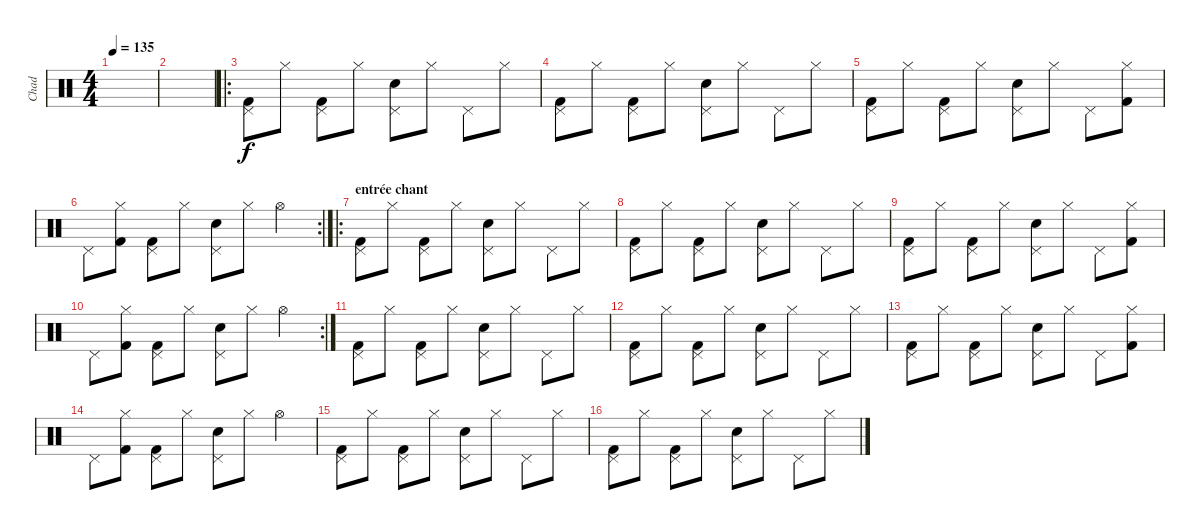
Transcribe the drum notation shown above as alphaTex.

\track ("Chad" "Chad") {instrument percussion}
\staff {score}
\articulation defaults
\ts (4 4)
\tempo 135
\clef neutral
\ks c
|
|
\ro
("Pedal Hi-Hat (hit)" "Kick (hit) 2").8 "Hi-Hat (closed)".8 ("Pedal Hi-Hat (hit)" "Kick (hit) 2").8 "Hi-Hat (closed)".8 ("Pedal Hi-Hat (hit)" "Electric Snare (hit)").8 "Hi-Hat (closed)".8 "Pedal Hi-Hat (hit)".8 "Hi-Hat (closed)".8 |
("Pedal Hi-Hat (hit)" "Kick (hit) 2").8 "Hi-Hat (closed)".8 ("Pedal Hi-Hat (hit)" "Kick (hit) 2").8 "Hi-Hat (closed)".8 ("Pedal Hi-Hat (hit)" "Electric Snare (hit)").8 "Hi-Hat (closed)".8 "Pedal Hi-Hat (hit)".8 "Hi-Hat (closed)".8 |
("Pedal Hi-Hat (hit)" "Kick (hit) 2").8 "Hi-Hat (closed)".8 ("Pedal Hi-Hat (hit)" "Kick (hit) 2").8 "Hi-Hat (closed)".8 ("Pedal Hi-Hat (hit)" "Electric Snare (hit)").8 "Hi-Hat (closed)".8 "Pedal Hi-Hat (hit)".8 ("Hi-Hat (closed)" "Kick (hit) 2").8 |
\rc 2 "Pedal Hi-Hat (hit)".8
("Hi-Hat (closed)" "Kick (hit) 2").8 ("Pedal Hi-Hat (hit)" "Kick (hit) 2").8 "Hi-Hat (closed)".8 ("Pedal Hi-Hat (hit)" "Electric Snare (hit)").8 "Hi-Hat (closed)".8 "Hi-Hat (open)".4 |
\ro
\section ("" "entrée chant")
("Pedal Hi-Hat (hit)" "Kick (hit) 2").8 "Hi-Hat (closed)".8 ("Pedal Hi-Hat (hit)" "Kick (hit) 2").8 "Hi-Hat (closed)".8 ("Pedal Hi-Hat (hit)" "Electric Snare (hit)").8 "Hi-Hat (closed)".8 "Pedal Hi-Hat (hit)".8 "Hi-Hat (closed)".8 |
("Pedal Hi-Hat (hit)" "Kick (hit) 2").8 "Hi-Hat (closed)".8 ("Pedal Hi-Hat (hit)" "Kick (hit) 2").8 "Hi-Hat (closed)".8 ("Pedal Hi-Hat (hit)" "Electric Snare (hit)").8 "Hi-Hat (closed)".8 "Pedal Hi-Hat (hit)".8 "Hi-Hat (closed)".8 |
("Pedal Hi-Hat (hit)" "Kick (hit) 2").8 "Hi-Hat (closed)".8 ("Pedal Hi-Hat (hit)" "Kick (hit) 2").8 "Hi-Hat (closed)".8 ("Pedal Hi-Hat (hit)" "Electric Snare (hit)").8 "Hi-Hat (closed)".8 "Pedal Hi-Hat (hit)".8 ("Hi-Hat (closed)" "Kick (hit) 2").8 |
\rc 2 "Pedal Hi-Hat (hit)".8
("Hi-Hat (closed)" "Kick (hit) 2").8 ("Pedal Hi-Hat (hit)" "Kick (hit) 2").8 "Hi-Hat (closed)".8 ("Pedal Hi-Hat (hit)" "Electric Snare (hit)").8 "Hi-Hat (closed)".8 "Hi-Hat (open)".4 |
("Pedal Hi-Hat (hit)" "Kick (hit) 2").8 "Hi-Hat (closed)".8 ("Pedal Hi-Hat (hit)" "Kick (hit) 2").8 "Hi-Hat (closed)".8 ("Pedal Hi-Hat (hit)" "Electric Snare (hit)").8 "Hi-Hat (closed)".8 "Pedal Hi-Hat (hit)".8 "Hi-Hat (closed)".8 |
("Pedal Hi-Hat (hit)" "Kick (hit) 2").8 "Hi-Hat (closed)".8 ("Pedal Hi-Hat (hit)" "Kick (hit) 2").8 "Hi-Hat (closed)".8 ("Pedal Hi-Hat (hit)" "Electric Snare (hit)").8 "Hi-Hat (closed)".8 "Pedal Hi-Hat (hit)".8 "Hi-Hat (closed)".8 |
("Pedal Hi-Hat (hit)" "Kick (hit) 2").8 "Hi-Hat (closed)".8 ("Pedal Hi-Hat (hit)" "Kick (hit) 2").8 "Hi-Hat (closed)".8 ("Pedal Hi-Hat (hit)" "Electric Snare (hit)").8 "Hi-Hat (closed)".8 "Pedal Hi-Hat (hit)".8 ("Hi-Hat (closed)" "Kick (hit) 2").8 |
"Pedal Hi-Hat (hit)".8 ("Hi-Hat (closed)" "Kick (hit) 2").8 ("Pedal Hi-Hat (hit)" "Kick (hit) 2").8 "Hi-Hat (closed)".8 ("Pedal Hi-Hat (hit)" "Electric Snare (hit)").8 "Hi-Hat (closed)".8 "Hi-Hat (open)".4 |
("Pedal Hi-Hat (hit)" "Kick (hit) 2").8 "Hi-Hat (closed)".8 ("Pedal Hi-Hat (hit)" "Kick (hit) 2").8 "Hi-Hat (closed)".8 ("Pedal Hi-Hat (hit)" "Electric Snare (hit)").8 "Hi-Hat (closed)".8 "Pedal Hi-Hat (hit)".8 "Hi-Hat (closed)".8 |
("Pedal Hi-Hat (hit)" "Kick (hit) 2").8 "Hi-Hat (closed)".8 ("Pedal Hi-Hat (hit)" "Kick (hit) 2").8 "Hi-Hat (closed)".8 ("Pedal Hi-Hat (hit)" "Electric Snare (hit)").8 "Hi-Hat (closed)".8 "Pedal Hi-Hat (hit)".8 "Hi-Hat (closed)".8
